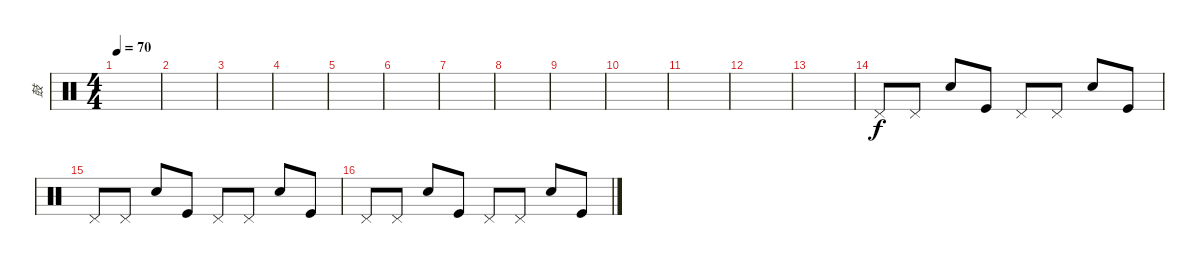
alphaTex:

\track ("鼓" "鼓") {instrument percussion}
\staff {score}
\articulation defaults
\ts (4 4)
\tempo 70
\clef neutral
\ks c
|
|
|
|
|
|
|
|
|
|
|
|
|
"Pedal Hi-Hat (hit)".8 "Pedal Hi-Hat (hit)".8 "Snare (hit) 2".8 "Kick (hit)".8 "Pedal Hi-Hat (hit)".8 "Pedal Hi-Hat (hit)".8 "Snare (hit) 2".8 "Kick (hit)".8 |
"Pedal Hi-Hat (hit)".8 "Pedal Hi-Hat (hit)".8 "Snare (hit) 2".8 "Kick (hit)".8 "Pedal Hi-Hat (hit)".8 "Pedal Hi-Hat (hit)".8 "Snare (hit) 2".8 "Kick (hit)".8 |
"Pedal Hi-Hat (hit)".8 "Pedal Hi-Hat (hit)".8 "Snare (hit) 2".8 "Kick (hit)".8 "Pedal Hi-Hat (hit)".8 "Pedal Hi-Hat (hit)".8 "Snare (hit) 2".8 "Kick (hit)".8
